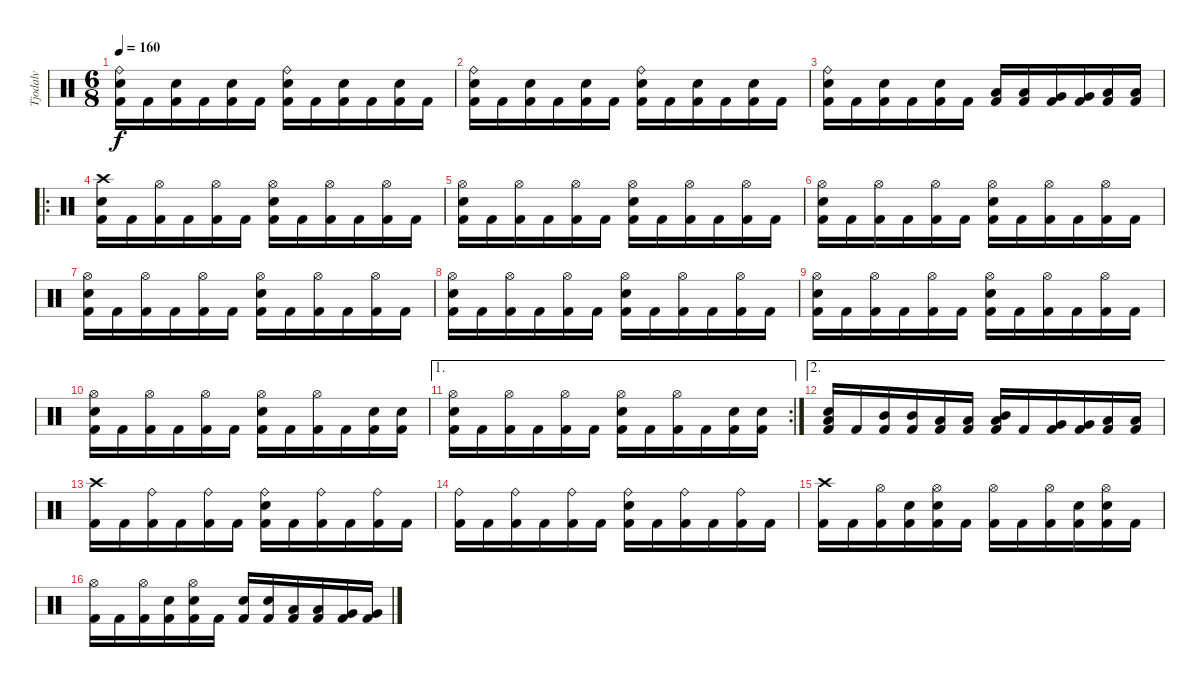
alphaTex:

\track ("Tjodalv" "Tjodalv") {instrument percussion}
\staff {score}
\articulation defaults
\ts (6 8)
\tempo 160
\clef neutral
\ks c
("Ride (bell)" "Snare (hit) 2" "Kick (hit) 2").16{dy f} "Kick (hit) 2".16 ("Snare (hit) 2" "Kick (hit) 2").16 "Kick (hit) 2".16 ("Snare (hit) 2" "Kick (hit) 2").16 "Kick (hit) 2".16 ("Ride (bell)" "Snare (hit) 2" "Kick (hit) 2").16 "Kick (hit) 2".16 ("Snare (hit) 2" "Kick (hit) 2").16 "Kick (hit) 2".16 ("Snare (hit) 2" "Kick (hit) 2").16 "Kick (hit) 2".16 |
("Ride (bell)" "Snare (hit) 2" "Kick (hit) 2").16 "Kick (hit) 2".16 ("Snare (hit) 2" "Kick (hit) 2").16 "Kick (hit) 2".16 ("Snare (hit) 2" "Kick (hit) 2").16 "Kick (hit) 2".16 ("Ride (bell)" "Snare (hit) 2" "Kick (hit) 2").16 "Kick (hit) 2".16 ("Snare (hit) 2" "Kick (hit) 2").16 "Kick (hit) 2".16 ("Snare (hit) 2" "Kick (hit) 2").16 "Kick (hit) 2".16 |
("Ride (bell)" "Snare (hit) 2" "Kick (hit) 2").16 "Kick (hit) 2".16 ("Snare (hit) 2" "Kick (hit) 2").16 "Kick (hit) 2".16 ("Snare (hit) 2" "Kick (hit) 2").16 "Kick (hit) 2".16 ("Low Tom (hit)" "Kick (hit) 2").16 ("Low Tom (hit)" "Kick (hit) 2").16 ("Very Low Tom (hit)" "Kick (hit) 2").16 ("Very Low Tom (hit)" "Kick (hit) 2").16 ("Low Floor Tom (hit)" "Kick (hit) 2").16 ("Low Floor Tom (hit)" "Kick (hit) 2").16 |
\ro
("Crash high (hit)" "Snare (hit) 2" "Kick (hit) 2").16 "Kick (hit) 2".16 ("Hi-Hat (open)" "Kick (hit) 2").16 "Kick (hit) 2".16 ("Hi-Hat (open)" "Kick (hit) 2").16 "Kick (hit) 2".16 ("Hi-Hat (open)" "Snare (hit) 2" "Kick (hit) 2").16 "Kick (hit) 2".16 ("Hi-Hat (open)" "Kick (hit) 2").16 "Kick (hit) 2".16 ("Hi-Hat (open)" "Kick (hit) 2").16 "Kick (hit) 2".16 |
("Hi-Hat (open)" "Snare (hit) 2" "Kick (hit) 2").16 "Kick (hit) 2".16 ("Hi-Hat (open)" "Kick (hit) 2").16 "Kick (hit) 2".16 ("Hi-Hat (open)" "Kick (hit) 2").16 "Kick (hit) 2".16 ("Hi-Hat (open)" "Snare (hit) 2" "Kick (hit) 2").16 "Kick (hit) 2".16 ("Hi-Hat (open)" "Kick (hit) 2").16 "Kick (hit) 2".16 ("Hi-Hat (open)" "Kick (hit) 2").16 "Kick (hit) 2".16 |
("Hi-Hat (open)" "Snare (hit) 2" "Kick (hit) 2").16 "Kick (hit) 2".16 ("Hi-Hat (open)" "Kick (hit) 2").16 "Kick (hit) 2".16 ("Hi-Hat (open)" "Kick (hit) 2").16 "Kick (hit) 2".16 ("Hi-Hat (open)" "Snare (hit) 2" "Kick (hit) 2").16 "Kick (hit) 2".16 ("Hi-Hat (open)" "Kick (hit) 2").16 "Kick (hit) 2".16 ("Hi-Hat (open)" "Kick (hit) 2").16 "Kick (hit) 2".16 |
("Hi-Hat (open)" "Snare (hit) 2" "Kick (hit) 2").16 "Kick (hit) 2".16 ("Hi-Hat (open)" "Kick (hit) 2").16 "Kick (hit) 2".16 ("Hi-Hat (open)" "Kick (hit) 2").16 "Kick (hit) 2".16 ("Hi-Hat (open)" "Snare (hit) 2" "Kick (hit) 2").16 "Kick (hit) 2".16 ("Hi-Hat (open)" "Kick (hit) 2").16 "Kick (hit) 2".16 ("Hi-Hat (open)" "Kick (hit) 2").16 "Kick (hit) 2".16 |
("Hi-Hat (open)" "Snare (hit) 2" "Kick (hit) 2").16 "Kick (hit) 2".16 ("Hi-Hat (open)" "Kick (hit) 2").16 "Kick (hit) 2".16 ("Hi-Hat (open)" "Kick (hit) 2").16 "Kick (hit) 2".16 ("Hi-Hat (open)" "Snare (hit) 2" "Kick (hit) 2").16 "Kick (hit) 2".16 ("Hi-Hat (open)" "Kick (hit) 2").16 "Kick (hit) 2".16 ("Hi-Hat (open)" "Kick (hit) 2").16 "Kick (hit) 2".16 |
("Hi-Hat (open)" "Snare (hit) 2" "Kick (hit) 2").16 "Kick (hit) 2".16 ("Hi-Hat (open)" "Kick (hit) 2").16 "Kick (hit) 2".16 ("Hi-Hat (open)" "Kick (hit) 2").16 "Kick (hit) 2".16 ("Hi-Hat (open)" "Snare (hit) 2" "Kick (hit) 2").16 "Kick (hit) 2".16 ("Hi-Hat (open)" "Kick (hit) 2").16 "Kick (hit) 2".16 ("Hi-Hat (open)" "Kick (hit) 2").16 "Kick (hit) 2".16 |
("Hi-Hat (open)" "Snare (hit) 2" "Kick (hit) 2").16 "Kick (hit) 2".16 ("Hi-Hat (open)" "Kick (hit) 2").16 "Kick (hit) 2".16 ("Hi-Hat (open)" "Kick (hit) 2").16 "Kick (hit) 2".16 ("Hi-Hat (open)" "Snare (hit) 2" "Kick (hit) 2").16 "Kick (hit) 2".16 ("Hi-Hat (open)" "Kick (hit) 2").16 "Kick (hit) 2".16 ("Snare (hit) 2" "Kick (hit) 2").16 ("Snare (hit) 2" "Kick (hit) 2").16 |
\ae 1
\rc 2
("Hi-Hat (open)" "Snare (hit) 2" "Kick (hit) 2").16 "Kick (hit) 2".16 ("Hi-Hat (open)" "Kick (hit) 2").16 "Kick (hit) 2".16 ("Hi-Hat (open)" "Kick (hit) 2").16 "Kick (hit) 2".16 ("Hi-Hat (open)" "Snare (hit) 2" "Kick (hit) 2").16 "Kick (hit) 2".16 ("Hi-Hat (open)" "Kick (hit) 2").16 "Kick (hit) 2".16 ("Snare (hit) 2" "Kick (hit) 2").16 ("Snare (hit) 2" "Kick (hit) 2").16 |
\ae 2
("Low Floor Tom (hit)" "Snare (hit) 2" "Kick (hit) 2").16 "Kick (hit) 2".16 ("Mid Tom (hit)" "Kick (hit) 2").16 ("Mid Tom (hit)" "Kick (hit) 2").16 ("Low Tom (hit)" "Kick (hit) 2").16 ("Low Tom (hit)" "Kick (hit) 2").16 ("Low Tom (hit)" "Mid Tom (hit)" "Kick (hit) 2").16 "Kick (hit) 2".16 ("Very Low Tom (hit)" "Kick (hit) 2").16 ("Very Low Tom (hit)" "Kick (hit) 2").16 ("Low Floor Tom (hit)" "Kick (hit) 2").16 ("Low Floor Tom (hit)" "Kick (hit) 2").16 |
("Crash high (hit)" "Kick (hit) 2").16 "Kick (hit) 2".16 ("Ride (bell)" "Kick (hit) 2").16 "Kick (hit) 2".16 ("Ride (bell)" "Kick (hit) 2").16 "Kick (hit) 2".16 ("Ride (bell)" "Snare (hit) 2" "Kick (hit) 2").16 "Kick (hit) 2".16 ("Ride (bell)" "Kick (hit) 2").16 "Kick (hit) 2".16 ("Ride (bell)" "Kick (hit) 2").16 "Kick (hit) 2".16 |
("Ride (bell)" "Kick (hit) 2").16 "Kick (hit) 2".16 ("Ride (bell)" "Kick (hit) 2").16 "Kick (hit) 2".16 ("Ride (bell)" "Kick (hit) 2").16 "Kick (hit) 2".16 ("Ride (bell)" "Snare (hit) 2" "Kick (hit) 2").16 "Kick (hit) 2".16 ("Ride (bell)" "Kick (hit) 2").16 "Kick (hit) 2".16 ("Ride (bell)" "Kick (hit) 2").16 "Kick (hit) 2".16 |
("Crash high (hit)" "Kick (hit) 2").16 "Kick (hit) 2".16 ("Hi-Hat (open)" "Kick (hit) 2").16 ("Snare (hit) 2" "Kick (hit) 2").16 ("Hi-Hat (open)" "Snare (hit) 2" "Kick (hit) 2").16 "Kick (hit) 2".16 ("Hi-Hat (open)" "Kick (hit) 2").16 "Kick (hit) 2".16 ("Hi-Hat (open)" "Kick (hit) 2").16 ("Snare (hit) 2" "Kick (hit) 2").16 ("Hi-Hat (open)" "Snare (hit) 2" "Kick (hit) 2").16 "Kick (hit) 2".16 |
("Hi-Hat (open)" "Kick (hit) 2").16 "Kick (hit) 2".16 ("Hi-Hat (open)" "Kick (hit) 2").16 ("Snare (hit) 2" "Kick (hit) 2").16 ("Hi-Hat (open)" "Snare (hit) 2" "Kick (hit) 2").16 "Kick (hit) 2".16 ("Snare (hit) 2" "Kick (hit) 2").16 ("Snare (hit) 2" "Kick (hit) 2").16 ("Low Tom (hit)" "Kick (hit) 2").16 ("Low Tom (hit)" "Kick (hit) 2").16 ("Very Low Tom (hit)" "Kick (hit) 2").16 ("Very Low Tom (hit)" "Kick (hit) 2").16
